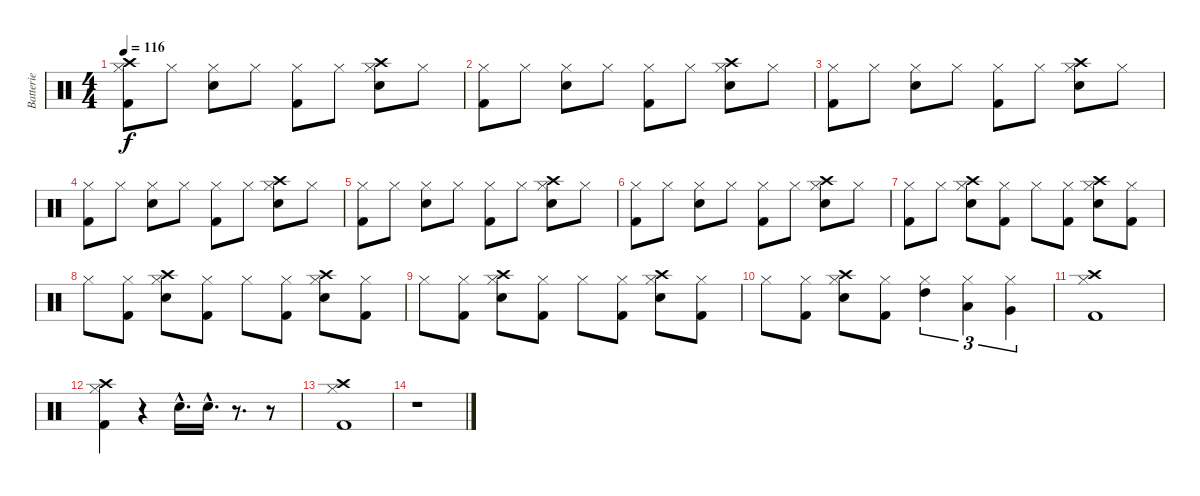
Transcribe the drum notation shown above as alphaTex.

\track ("Batterie" "Batterie") {instrument percussion}
\staff {score}
\articulation defaults
\ts (4 4)
\tempo 116
\clef neutral
\ks c
("Hi-Hat (closed)" "Crash high (hit)" "Kick (hit) 2").8{dy f} "Hi-Hat (closed)".8 ("Hi-Hat (closed)" "Snare (hit) 2").8 "Hi-Hat (closed)".8 ("Hi-Hat (closed)" "Kick (hit) 2").8 "Hi-Hat (closed)".8 ("Hi-Hat (closed)" "Crash high (hit)" "Snare (hit) 2").8 "Hi-Hat (closed)".8 |
("Hi-Hat (closed)" "Kick (hit) 2").8 "Hi-Hat (closed)".8 ("Hi-Hat (closed)" "Snare (hit) 2").8 "Hi-Hat (closed)".8 ("Hi-Hat (closed)" "Kick (hit) 2").8 "Hi-Hat (closed)".8 ("Hi-Hat (closed)" "Crash high (hit)" "Snare (hit) 2").8 "Hi-Hat (closed)".8 |
("Hi-Hat (closed)" "Kick (hit) 2").8 "Hi-Hat (closed)".8 ("Hi-Hat (closed)" "Snare (hit) 2").8 "Hi-Hat (closed)".8 ("Hi-Hat (closed)" "Kick (hit) 2").8 "Hi-Hat (closed)".8 ("Hi-Hat (closed)" "Crash high (hit)" "Snare (hit) 2").8 "Hi-Hat (closed)".8 |
("Hi-Hat (closed)" "Kick (hit) 2").8 "Hi-Hat (closed)".8 ("Hi-Hat (closed)" "Snare (hit) 2").8 "Hi-Hat (closed)".8 ("Hi-Hat (closed)" "Kick (hit) 2").8 "Hi-Hat (closed)".8 ("Hi-Hat (closed)" "Crash high (hit)" "Snare (hit) 2").8 "Hi-Hat (closed)".8 |
("Hi-Hat (closed)" "Kick (hit) 2").8 "Hi-Hat (closed)".8 ("Hi-Hat (closed)" "Snare (hit) 2").8 "Hi-Hat (closed)".8 ("Hi-Hat (closed)" "Kick (hit) 2").8 "Hi-Hat (closed)".8 ("Hi-Hat (closed)" "Crash high (hit)" "Snare (hit) 2").8 "Hi-Hat (closed)".8 |
("Hi-Hat (closed)" "Kick (hit) 2").8 "Hi-Hat (closed)".8 ("Hi-Hat (closed)" "Snare (hit) 2").8 "Hi-Hat (closed)".8 ("Hi-Hat (closed)" "Kick (hit) 2").8 "Hi-Hat (closed)".8 ("Hi-Hat (closed)" "Crash high (hit)" "Snare (hit) 2").8 "Hi-Hat (closed)".8 |
("Hi-Hat (closed)" "Kick (hit) 2").8 "Hi-Hat (closed)".8 ("Hi-Hat (closed)" "Crash high (hit)" "Snare (hit) 2").8 ("Hi-Hat (closed)" "Kick (hit) 2").8 "Hi-Hat (closed)".8 ("Hi-Hat (closed)" "Kick (hit) 2").8 ("Hi-Hat (closed)" "Crash high (hit)" "Snare (hit) 2").8 ("Hi-Hat (closed)" "Kick (hit) 2").8 |
"Hi-Hat (closed)".8 ("Hi-Hat (closed)" "Kick (hit) 2").8 ("Hi-Hat (closed)" "Crash high (hit)" "Snare (hit) 2").8 ("Hi-Hat (closed)" "Kick (hit) 2").8 "Hi-Hat (closed)".8 ("Hi-Hat (closed)" "Kick (hit) 2").8 ("Hi-Hat (closed)" "Crash high (hit)" "Snare (hit) 2").8 ("Hi-Hat (closed)" "Kick (hit) 2").8 |
"Hi-Hat (closed)".8 ("Hi-Hat (closed)" "Kick (hit) 2").8 ("Hi-Hat (closed)" "Crash high (hit)" "Snare (hit) 2").8 ("Hi-Hat (closed)" "Kick (hit) 2").8 "Hi-Hat (closed)".8 ("Hi-Hat (closed)" "Kick (hit) 2").8 ("Hi-Hat (closed)" "Crash high (hit)" "Snare (hit) 2").8 ("Hi-Hat (closed)" "Kick (hit) 2").8 |
"Hi-Hat (closed)".8 ("Hi-Hat (closed)" "Kick (hit) 2").8 ("Hi-Hat (closed)" "Crash high (hit)" "Snare (hit) 2").8 ("Hi-Hat (closed)" "Kick (hit) 2").8 ("Hi-Hat (closed)" "High Tom (hit)").4{tu (3 2)} ("Hi-Hat (closed)" "Low Tom (hit)").4{tu (3 2)} ("Hi-Hat (closed)" "Very Low Tom (hit)").4{tu (3 2)} |
("Hi-Hat (closed)" "Crash high (hit)" "Kick (hit) 2").1 |
("Hi-Hat (closed)" "Crash high (hit)" "Kick (hit) 2").4 r.4 "Snare (hit) 2"{hac}.16{d} "Snare (hit) 2"{hac}.16{d} r.8{d} r.8 |
("Hi-Hat (closed)" "Crash high (hit)" "Kick (hit) 2").1 |
r.1
